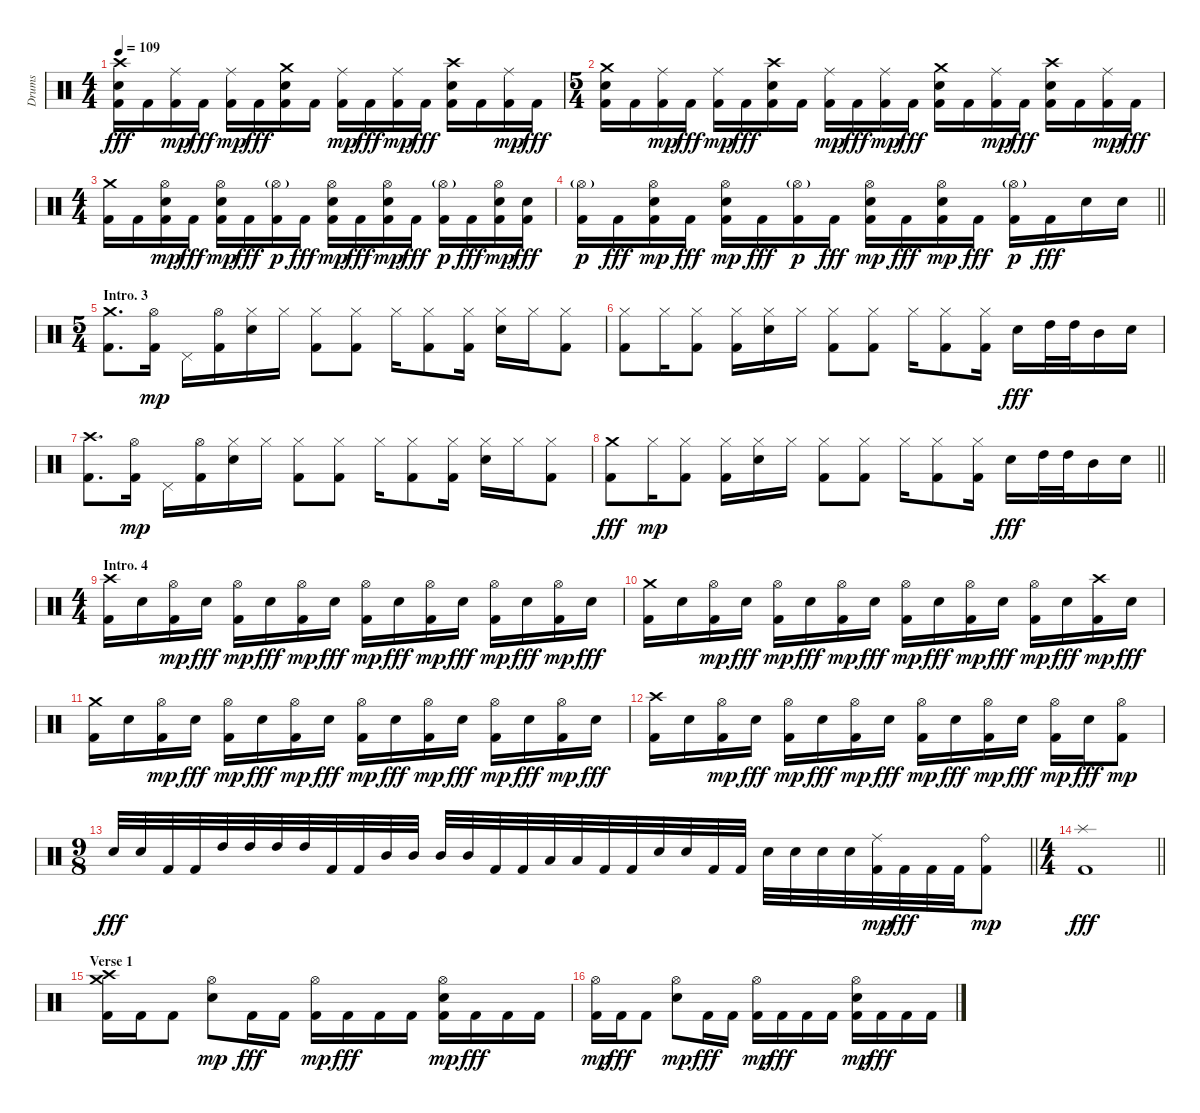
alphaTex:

\track ("Drums" "Drums") {instrument percussion}
\staff {score}
\articulation defaults
\ts (4 4)
\tempo 109
\clef neutral
\ks c
("Kick (hit) 2" "Electric Snare (hit)" "Crash high (hit)").16{dy fff} "Kick (hit) 2".16 ("Kick (hit) 2" "Ride (middle)").16{dy mp} "Kick (hit) 2".16{dy fff} ("Kick (hit) 2" "Ride (middle)").16{dy mp} "Kick (hit) 2".16{dy fff} ("Kick (hit) 2" "Electric Snare (hit)" "Crash medium (hit)").16 "Kick (hit) 2".16 ("Kick (hit) 2" "Ride (middle)").16{dy mp} "Kick (hit) 2".16{dy fff} ("Kick (hit) 2" "Ride (middle)").16{dy mp} "Kick (hit) 2".16{dy fff} ("Kick (hit) 2" "Electric Snare (hit)" "Crash high (hit)").16 "Kick (hit) 2".16 ("Kick (hit) 2" "Ride (middle)").16{dy mp} "Kick (hit) 2".16{dy fff} |
\ts (5 4)
("Kick (hit) 2" "Electric Snare (hit)" "Crash medium (hit)").16 "Kick (hit) 2".16 ("Kick (hit) 2" "Ride (middle)").16{dy mp} "Kick (hit) 2".16{dy fff} ("Kick (hit) 2" "Ride (middle)").16{dy mp} "Kick (hit) 2".16{dy fff} ("Kick (hit) 2" "Electric Snare (hit)" "Crash high (hit)").16 "Kick (hit) 2".16 ("Kick (hit) 2" "Ride (middle)").16{dy mp} "Kick (hit) 2".16{dy fff} ("Kick (hit) 2" "Ride (middle)").16{dy mp} "Kick (hit) 2".16{dy fff} ("Kick (hit) 2" "Electric Snare (hit)" "Crash medium (hit)").16 "Kick (hit) 2".16 ("Kick (hit) 2" "Ride (middle)").16{dy mp} "Kick (hit) 2".16{dy fff} ("Kick (hit) 2" "Electric Snare (hit)" "Crash high (hit)").16 "Kick (hit) 2".16 ("Kick (hit) 2" "Ride (middle)").16{dy mp} "Kick (hit) 2".16{dy fff} |
\ts (4 4)
("Kick (hit) 2" "Crash medium (hit)").16 "Kick (hit) 2".16 ("Kick (hit) 2" "Electric Snare (hit)" "Hi-Hat (open)").16{dy mp} "Kick (hit) 2".16{dy fff} ("Kick (hit) 2" "Electric Snare (hit)" "Hi-Hat (open)").16{dy mp} "Kick (hit) 2".16{dy fff} ("Kick (hit) 2" "Hi-Hat (open)"{g}).16{dy p} "Kick (hit) 2".16{dy fff} ("Kick (hit) 2" "Electric Snare (hit)" "Hi-Hat (open)").16{dy mp} "Kick (hit) 2".16{dy fff} ("Kick (hit) 2" "Electric Snare (hit)" "Hi-Hat (open)").16{dy mp} "Kick (hit) 2".16{dy fff} ("Kick (hit) 2" "Hi-Hat (open)"{g}).16{dy p} "Kick (hit) 2".16{dy fff} ("Kick (hit) 2" "Electric Snare (hit)" "Hi-Hat (open)").16{dy mp} ("Kick (hit) 2" "Electric Snare (hit)").16{dy fff} |
\barLineRight lightlight
("Kick (hit) 2" "Hi-Hat (open)"{g}).16{dy p} "Kick (hit) 2".16{dy fff} ("Kick (hit) 2" "Electric Snare (hit)" "Hi-Hat (open)").16{dy mp} "Kick (hit) 2".16{dy fff} ("Kick (hit) 2" "Electric Snare (hit)" "Hi-Hat (open)").16{dy mp} "Kick (hit) 2".16{dy fff} ("Kick (hit) 2" "Hi-Hat (open)"{g}).16{dy p} "Kick (hit) 2".16{dy fff} ("Kick (hit) 2" "Electric Snare (hit)" "Hi-Hat (open)").16{dy mp} "Kick (hit) 2".16{dy fff} ("Kick (hit) 2" "Electric Snare (hit)" "Hi-Hat (open)").16{dy mp} "Kick (hit) 2".16{dy fff} ("Kick (hit) 2" "Hi-Hat (open)"{g}).16{dy p} "Kick (hit) 2".16{dy fff} "Electric Snare (hit)".16 "Electric Snare (hit)".16 |
\ts (5 4)
\section ("" "Intro. 3")
("Kick (hit) 2" "Crash medium (hit)").8{d} ("Kick (hit) 2" "Hi-Hat (open)").16{dy mp} "Pedal Hi-Hat (hit)".16 ("Kick (hit) 2" "Hi-Hat (open)").16 ("Electric Snare (hit)" "Hi-Hat (closed)").16 "Hi-Hat (closed)".16 ("Kick (hit) 2" "Hi-Hat (closed)").8 ("Kick (hit) 2" "Hi-Hat (closed)").8 "Hi-Hat (closed)".16 ("Kick (hit) 2" "Hi-Hat (closed)").8 ("Kick (hit) 2" "Hi-Hat (closed)").16 ("Electric Snare (hit)" "Hi-Hat (closed)").16 "Hi-Hat (closed)".16 ("Kick (hit) 2" "Hi-Hat (closed)").8 |
("Kick (hit) 2" "Hi-Hat (closed)").8 "Hi-Hat (closed)".16 ("Kick (hit) 2" "Hi-Hat (closed)").8 ("Kick (hit) 2" "Hi-Hat (closed)").16 ("Electric Snare (hit)" "Hi-Hat (closed)").16 "Hi-Hat (closed)".16 ("Kick (hit) 2" "Hi-Hat (closed)").8 ("Kick (hit) 2" "Hi-Hat (closed)").8 "Hi-Hat (closed)".16 ("Kick (hit) 2" "Hi-Hat (closed)").8 ("Kick (hit) 2" "Hi-Hat (closed)").16 "Electric Snare (hit)".16{dy fff} "High Tom (hit)".32 "High Tom (hit)".32 "Mid Tom (hit)".16 "Electric Snare (hit)".16 |
("Kick (hit) 2" "Crash high (hit)").8{d} ("Kick (hit) 2" "Hi-Hat (open)").16{dy mp} "Pedal Hi-Hat (hit)".16 ("Kick (hit) 2" "Hi-Hat (open)").16 ("Electric Snare (hit)" "Hi-Hat (closed)").16 "Hi-Hat (closed)".16 ("Kick (hit) 2" "Hi-Hat (closed)").8 ("Kick (hit) 2" "Hi-Hat (closed)").8 "Hi-Hat (closed)".16 ("Kick (hit) 2" "Hi-Hat (closed)").8 ("Kick (hit) 2" "Hi-Hat (closed)").16 ("Electric Snare (hit)" "Hi-Hat (closed)").16 "Hi-Hat (closed)".16 ("Kick (hit) 2" "Hi-Hat (closed)").8 |
\barLineRight lightlight
("Kick (hit) 2" "Crash medium (hit)").8{dy fff} "Hi-Hat (closed)".16{dy mp} ("Kick (hit) 2" "Hi-Hat (closed)").8 ("Kick (hit) 2" "Hi-Hat (closed)").16 ("Electric Snare (hit)" "Hi-Hat (closed)").16 "Hi-Hat (closed)".16 ("Kick (hit) 2" "Hi-Hat (closed)").8 ("Kick (hit) 2" "Hi-Hat (closed)").8 "Hi-Hat (closed)".16 ("Kick (hit) 2" "Hi-Hat (closed)").8 ("Kick (hit) 2" "Hi-Hat (closed)").16 "Electric Snare (hit)".16{dy fff} "High Tom (hit)".32 "High Tom (hit)".32 "Mid Tom (hit)".16 "Electric Snare (hit)".16 |
\ts (4 4)
\section ("" "Intro. 4")
("Kick (hit) 2" "Crash high (hit)").16 "Electric Snare (hit)".16 ("Kick (hit) 2" "Hi-Hat (open)").16{dy mp} "Electric Snare (hit)".16{dy fff} ("Kick (hit) 2" "Hi-Hat (open)").16{dy mp} "Electric Snare (hit)".16{dy fff} ("Kick (hit) 2" "Hi-Hat (open)").16{dy mp} "Electric Snare (hit)".16{dy fff} ("Kick (hit) 2" "Hi-Hat (open)").16{dy mp} "Electric Snare (hit)".16{dy fff} ("Kick (hit) 2" "Hi-Hat (open)").16{dy mp} "Electric Snare (hit)".16{dy fff} ("Kick (hit) 2" "Hi-Hat (open)").16{dy mp} "Electric Snare (hit)".16{dy fff} ("Kick (hit) 2" "Hi-Hat (open)").16{dy mp} "Electric Snare (hit)".16{dy fff} |
("Kick (hit) 2" "Crash medium (hit)").16 "Electric Snare (hit)".16 ("Kick (hit) 2" "Hi-Hat (open)").16{dy mp} "Electric Snare (hit)".16{dy fff} ("Kick (hit) 2" "Hi-Hat (open)").16{dy mp} "Electric Snare (hit)".16{dy fff} ("Kick (hit) 2" "Hi-Hat (open)").16{dy mp} "Electric Snare (hit)".16{dy fff} ("Kick (hit) 2" "Hi-Hat (open)").16{dy mp} "Electric Snare (hit)".16{dy fff} ("Kick (hit) 2" "Hi-Hat (open)").16{dy mp} "Electric Snare (hit)".16{dy fff} ("Kick (hit) 2" "Hi-Hat (open)").16{dy mp} "Electric Snare (hit)".16{dy fff} ("Kick (hit) 2" "Crash high (hit)").16{dy mp} "Electric Snare (hit)".16{dy fff} |
("Kick (hit) 2" "Crash medium (hit)").16 "Electric Snare (hit)".16 ("Kick (hit) 2" "Hi-Hat (open)").16{dy mp} "Electric Snare (hit)".16{dy fff} ("Kick (hit) 2" "Hi-Hat (open)").16{dy mp} "Electric Snare (hit)".16{dy fff} ("Kick (hit) 2" "Hi-Hat (open)").16{dy mp} "Electric Snare (hit)".16{dy fff} ("Kick (hit) 2" "Hi-Hat (open)").16{dy mp} "Electric Snare (hit)".16{dy fff} ("Kick (hit) 2" "Hi-Hat (open)").16{dy mp} "Electric Snare (hit)".16{dy fff} ("Kick (hit) 2" "Hi-Hat (open)").16{dy mp} "Electric Snare (hit)".16{dy fff} ("Kick (hit) 2" "Hi-Hat (open)").16{dy mp} "Electric Snare (hit)".16{dy fff} |
("Kick (hit) 2" "Crash high (hit)").16 "Electric Snare (hit)".16 ("Kick (hit) 2" "Hi-Hat (open)").16{dy mp} "Electric Snare (hit)".16{dy fff} ("Kick (hit) 2" "Hi-Hat (open)").16{dy mp} "Electric Snare (hit)".16{dy fff} ("Kick (hit) 2" "Hi-Hat (open)").16{dy mp} "Electric Snare (hit)".16{dy fff} ("Kick (hit) 2" "Hi-Hat (open)").16{dy mp} "Electric Snare (hit)".16{dy fff} ("Kick (hit) 2" "Hi-Hat (open)").16{dy mp} "Electric Snare (hit)".16{dy fff} ("Kick (hit) 2" "Hi-Hat (open)").16{dy mp} "Electric Snare (hit)".16{dy fff} ("Kick (hit) 2" "Hi-Hat (open)").8{dy mp} |
\ts (9 8)
\barLineRight lightlight "Electric Snare (hit)".32{dy fff} "Electric Snare (hit)".32 "Kick (hit) 2".32 "Kick (hit) 2".32 "High Tom (hit)".32 "High Tom (hit)".32 "High Tom (hit)".32 "High Tom (hit)".32 "Kick (hit) 2".32 "Kick (hit) 2".32 "Mid Tom (hit)".32 "Mid Tom (hit)".32 "Mid Tom (hit)".32 "Mid Tom (hit)".32 "Kick (hit) 2".32 "Kick (hit) 2".32 "Low Tom (hit)".32 "Low Tom (hit)".32 "Kick (hit) 2".32 "Kick (hit) 2".32 "Electric Snare (hit)".32 "Electric Snare (hit)".32 "Kick (hit) 2".32 "Kick (hit) 2".32 "Electric Snare (hit)".32 "Electric Snare (hit)".32 "Electric Snare (hit)".32 "Electric Snare (hit)".32
("Kick (hit) 2" "Ride (middle)").32{dy mp} "Kick (hit) 2".32{dy fff} "Kick (hit) 2".32 "Kick (hit) 2".32 ("Kick (hit) 2" "Ride (bell)").8{dy mp} |
\ts (4 4)
\barLineRight lightlight
("Kick (hit) 2" "Splash (hit)").1{dy fff} |
\section ("" "Verse 1")
("Kick (hit) 2" "Crash medium (hit)" "Crash high (hit)").16 "Kick (hit) 2".16 "Kick (hit) 2".8 ("Electric Snare (hit)" "Hi-Hat (open)").8{dy mp} "Kick (hit) 2".16{dy fff} "Kick (hit) 2".16 ("Kick (hit) 2" "Hi-Hat (open)").16{dy mp} "Kick (hit) 2".16{dy fff} "Kick (hit) 2".16 "Kick (hit) 2".16 ("Kick (hit) 2" "Electric Snare (hit)" "Hi-Hat (open)").16{dy mp} "Kick (hit) 2".16{dy fff} "Kick (hit) 2".16 "Kick (hit) 2".16 |
("Kick (hit) 2" "Hi-Hat (open)").16{dy mp} "Kick (hit) 2".16{dy fff} "Kick (hit) 2".8 ("Electric Snare (hit)" "Hi-Hat (open)").8{dy mp} "Kick (hit) 2".16{dy fff} "Kick (hit) 2".16 ("Kick (hit) 2" "Hi-Hat (open)").16{dy mp} "Kick (hit) 2".16{dy fff} "Kick (hit) 2".16 "Kick (hit) 2".16 ("Kick (hit) 2" "Electric Snare (hit)" "Hi-Hat (open)").16{dy mp} "Kick (hit) 2".16{dy fff} "Kick (hit) 2".16 "Kick (hit) 2".16
